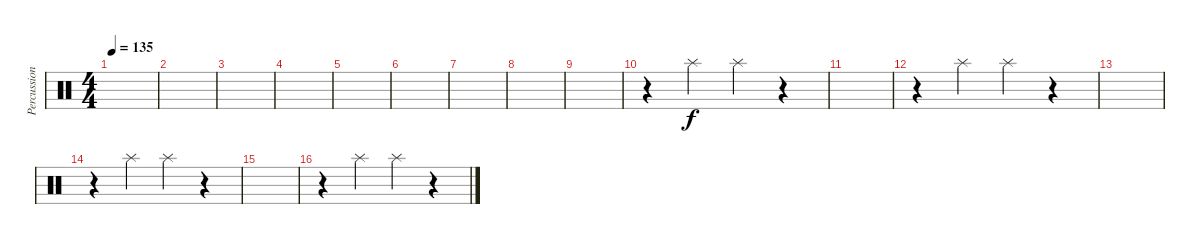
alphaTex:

\track ("Percussions" "Percussion") {instrument percussion}
\staff {score}
\articulation defaults
\ts (4 4)
\tempo 135
\clef neutral
\ks c
|
|
|
|
|
|
|
|
|
r.4 "Splash (hit)".4 "Splash (hit)".4 r.4 |
|
r.4 "Splash (hit)".4 "Splash (hit)".4 r.4 |
|
r.4 "Splash (hit)".4 "Splash (hit)".4 r.4 |
|
r.4 "Splash (hit)".4 "Splash (hit)".4 r.4
